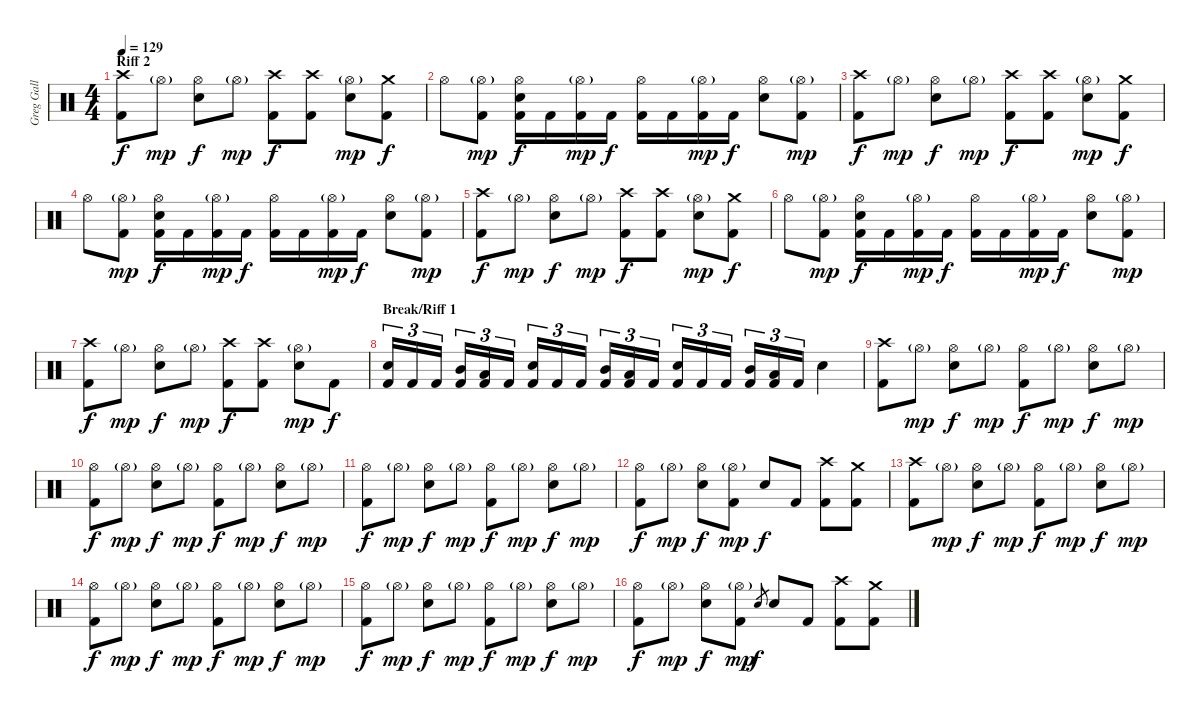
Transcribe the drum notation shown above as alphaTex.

\track ("Greg Gall (Drums)" "Greg Gall ") {instrument percussion}
\staff {score}
\articulation defaults
\ts (4 4)
\section ("" "Riff 2")
\tempo 129
\clef neutral
\ks c
("Crash high (hit)" "Kick (hit) 2").8{dy f} "Hi-Hat (open)"{g}.8{dy mp} ("Hi-Hat (open)" "Electric Snare (hit)").8{dy f} "Hi-Hat (open)"{g}.8{dy mp} ("Crash high (hit)" "Kick (hit) 2").8{dy f} ("Crash high (hit)" "Kick (hit) 2").8 ("Hi-Hat (open)"{g} "Electric Snare (hit)").8{dy mp} ("Crash medium (hit)" "Kick (hit) 2").8{dy f} |
"Hi-Hat (open)".8 ("Hi-Hat (open)"{g} "Kick (hit) 2").8{dy mp} ("Hi-Hat (open)" "Electric Snare (hit)" "Kick (hit) 2").16{dy f} "Kick (hit) 2".16 ("Hi-Hat (open)"{g} "Kick (hit) 2").16{dy mp} "Kick (hit) 2".16{dy f} ("Hi-Hat (open)" "Kick (hit) 2").16 "Kick (hit) 2".16 ("Hi-Hat (open)"{g} "Kick (hit) 2").16{dy mp} "Kick (hit) 2".16{dy f} ("Hi-Hat (open)" "Electric Snare (hit)").8 ("Hi-Hat (open)"{g} "Kick (hit) 2").8{dy mp} |
("Crash high (hit)" "Kick (hit) 2").8{dy f} "Hi-Hat (open)"{g}.8{dy mp} ("Hi-Hat (open)" "Electric Snare (hit)").8{dy f} "Hi-Hat (open)"{g}.8{dy mp} ("Crash high (hit)" "Kick (hit) 2").8{dy f} ("Crash high (hit)" "Kick (hit) 2").8 ("Hi-Hat (open)"{g} "Electric Snare (hit)").8{dy mp} ("Crash medium (hit)" "Kick (hit) 2").8{dy f} |
"Hi-Hat (open)".8 ("Hi-Hat (open)"{g} "Kick (hit) 2").8{dy mp} ("Hi-Hat (open)" "Electric Snare (hit)" "Kick (hit) 2").16{dy f} "Kick (hit) 2".16 ("Hi-Hat (open)"{g} "Kick (hit) 2").16{dy mp} "Kick (hit) 2".16{dy f} ("Hi-Hat (open)" "Kick (hit) 2").16 "Kick (hit) 2".16 ("Hi-Hat (open)"{g} "Kick (hit) 2").16{dy mp} "Kick (hit) 2".16{dy f} ("Hi-Hat (open)" "Electric Snare (hit)").8 ("Hi-Hat (open)"{g} "Kick (hit) 2").8{dy mp} |
("Crash high (hit)" "Kick (hit) 2").8{dy f} "Hi-Hat (open)"{g}.8{dy mp} ("Hi-Hat (open)" "Electric Snare (hit)").8{dy f} "Hi-Hat (open)"{g}.8{dy mp} ("Crash high (hit)" "Kick (hit) 2").8{dy f} ("Crash high (hit)" "Kick (hit) 2").8 ("Hi-Hat (open)"{g} "Electric Snare (hit)").8{dy mp} ("Crash medium (hit)" "Kick (hit) 2").8{dy f} |
"Hi-Hat (open)".8 ("Hi-Hat (open)"{g} "Kick (hit) 2").8{dy mp} ("Hi-Hat (open)" "Electric Snare (hit)" "Kick (hit) 2").16{dy f} "Kick (hit) 2".16 ("Hi-Hat (open)"{g} "Kick (hit) 2").16{dy mp} "Kick (hit) 2".16{dy f} ("Hi-Hat (open)" "Kick (hit) 2").16 "Kick (hit) 2".16 ("Hi-Hat (open)"{g} "Kick (hit) 2").16{dy mp} "Kick (hit) 2".16{dy f} ("Hi-Hat (open)" "Electric Snare (hit)").8 ("Hi-Hat (open)"{g} "Kick (hit) 2").8{dy mp} |
("Crash high (hit)" "Kick (hit) 2").8{dy f} "Hi-Hat (open)"{g}.8{dy mp} ("Hi-Hat (open)" "Electric Snare (hit)").8{dy f} "Hi-Hat (open)"{g}.8{dy mp} ("Crash high (hit)" "Kick (hit) 2").8{dy f} ("Crash high (hit)" "Kick (hit) 2").8 ("Hi-Hat (open)"{g} "Electric Snare (hit)").8{dy mp} "Kick (hit) 2".8{dy f} |
\section ("" "Break/Riff 1")
("Electric Snare (hit)" "Kick (hit) 2").16{tu (3 2)} "Kick (hit) 2".16{tu (3 2)} "Kick (hit) 2".16{tu (3 2)} ("Mid Tom (hit)" "Kick (hit) 2").16{tu (3 2)} ("Low Tom (hit)" "Kick (hit) 2").16{tu (3 2)} "Kick (hit) 2".16{tu (3 2)} ("Electric Snare (hit)" "Kick (hit) 2").16{tu (3 2)} "Kick (hit) 2".16{tu (3 2)} "Kick (hit) 2".16{tu (3 2)} ("Mid Tom (hit)" "Kick (hit) 2").16{tu (3 2)} ("Low Tom (hit)" "Kick (hit) 2").16{tu (3 2)} "Kick (hit) 2".16{tu (3 2)} ("Electric Snare (hit)" "Kick (hit) 2").16{tu (3 2)} "Kick (hit) 2".16{tu (3 2)} "Kick (hit) 2".16{tu (3 2)} ("Mid Tom (hit)" "Kick (hit) 2").16{tu (3 2)} ("Low Tom (hit)" "Kick (hit) 2").16{tu (3 2)} "Kick (hit) 2".16{tu (3 2)} "Electric Snare (hit)".4 |
("Crash high (hit)" "Kick (hit) 2").8 "Hi-Hat (open)"{g}.8{dy mp} ("Hi-Hat (open)" "Electric Snare (hit)").8{dy f} "Hi-Hat (open)"{g}.8{dy mp} ("Hi-Hat (open)" "Kick (hit) 2").8{dy f} "Hi-Hat (open)"{g}.8{dy mp} ("Hi-Hat (open)" "Electric Snare (hit)").8{dy f} "Hi-Hat (open)"{g}.8{dy mp} |
("Hi-Hat (open)" "Kick (hit) 2").8{dy f} "Hi-Hat (open)"{g}.8{dy mp} ("Hi-Hat (open)" "Electric Snare (hit)").8{dy f} "Hi-Hat (open)"{g}.8{dy mp} ("Hi-Hat (open)" "Kick (hit) 2").8{dy f} "Hi-Hat (open)"{g}.8{dy mp} ("Hi-Hat (open)" "Electric Snare (hit)").8{dy f} "Hi-Hat (open)"{g}.8{dy mp} |
("Hi-Hat (open)" "Kick (hit) 2").8{dy f} "Hi-Hat (open)"{g}.8{dy mp} ("Hi-Hat (open)" "Electric Snare (hit)").8{dy f} "Hi-Hat (open)"{g}.8{dy mp} ("Hi-Hat (open)" "Kick (hit) 2").8{dy f} "Hi-Hat (open)"{g}.8{dy mp} ("Hi-Hat (open)" "Electric Snare (hit)").8{dy f} "Hi-Hat (open)"{g}.8{dy mp} |
("Hi-Hat (open)" "Kick (hit) 2").8{dy f} "Hi-Hat (open)"{g}.8{dy mp} ("Hi-Hat (open)" "Electric Snare (hit)").8{dy f} ("Hi-Hat (open)"{g} "Kick (hit) 2").8{dy mp} "Electric Snare (hit)".8{dy f} "Kick (hit) 2".8 ("Crash high (hit)" "Kick (hit) 2").8 ("Crash medium (hit)" "Kick (hit) 2").8 |
("Crash high (hit)" "Kick (hit) 2").8 "Hi-Hat (open)"{g}.8{dy mp} ("Hi-Hat (open)" "Electric Snare (hit)").8{dy f} "Hi-Hat (open)"{g}.8{dy mp} ("Hi-Hat (open)" "Kick (hit) 2").8{dy f} "Hi-Hat (open)"{g}.8{dy mp} ("Hi-Hat (open)" "Electric Snare (hit)").8{dy f} "Hi-Hat (open)"{g}.8{dy mp} |
("Hi-Hat (open)" "Kick (hit) 2").8{dy f} "Hi-Hat (open)"{g}.8{dy mp} ("Hi-Hat (open)" "Electric Snare (hit)").8{dy f} "Hi-Hat (open)"{g}.8{dy mp} ("Hi-Hat (open)" "Kick (hit) 2").8{dy f} "Hi-Hat (open)"{g}.8{dy mp} ("Hi-Hat (open)" "Electric Snare (hit)").8{dy f} "Hi-Hat (open)"{g}.8{dy mp} |
("Hi-Hat (open)" "Kick (hit) 2").8{dy f} "Hi-Hat (open)"{g}.8{dy mp} ("Hi-Hat (open)" "Electric Snare (hit)").8{dy f} "Hi-Hat (open)"{g}.8{dy mp} ("Hi-Hat (open)" "Kick (hit) 2").8{dy f} "Hi-Hat (open)"{g}.8{dy mp} ("Hi-Hat (open)" "Electric Snare (hit)").8{dy f} "Hi-Hat (open)"{g}.8{dy mp} |
("Hi-Hat (open)" "Kick (hit) 2").8{dy f} "Hi-Hat (open)"{g}.8{dy mp} ("Hi-Hat (open)" "Electric Snare (hit)").8{dy f} ("Hi-Hat (open)"{g} "Kick (hit) 2").8{dy mp} "Electric Snare (hit)".8{gr dy f} "Electric Snare (hit)".8 "Kick (hit) 2".8 ("Crash high (hit)" "Kick (hit) 2").8 ("Crash medium (hit)" "Kick (hit) 2").8
